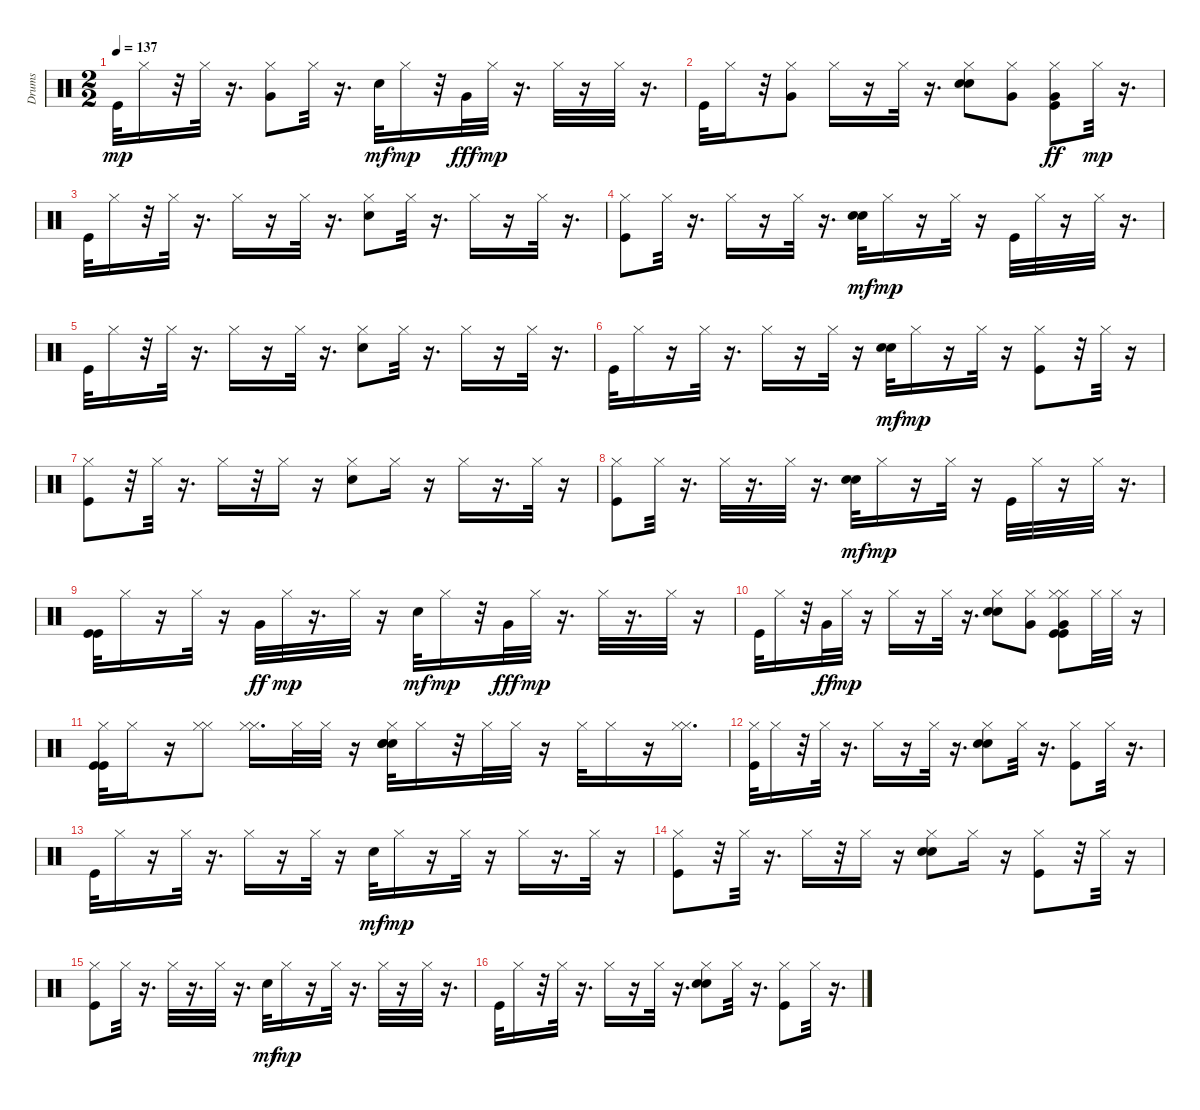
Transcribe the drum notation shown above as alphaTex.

\track ("Drums" "Drums") {instrument percussion}
\staff {score}
\articulation defaults
\ts (2 2)
\tempo 137
\clef neutral
\ks c "Kick (hit)".32{dy mp} "Hi-Hat (closed)".16
r.32 "Hi-Hat (closed)".32 r.16{d} ("Very Low Tom (hit)" "Hi-Hat (closed)").8 "Hi-Hat (closed)".32 r.16{d} "Snare (hit) 2".32{dy mf} "Hi-Hat (closed)".16{dy mp} r.32 "Very Low Tom (hit)".32{dy fff} "Hi-Hat (closed)".32{dy mp} r.16{d} "Hi-Hat (closed)".32 r.16 "Hi-Hat (closed)".32 r.16{d} |
"Kick (hit)".32 "Hi-Hat (closed)".16 r.32 ("Very Low Tom (hit)" "Hi-Hat (closed)").8 "Hi-Hat (closed)".16 r.16 "Hi-Hat (closed)".32 r.16{d} ("Snare (hit) 2" "Hand Clap (hit)" "Hi-Hat (closed)").8 ("Very Low Tom (hit)" "Hi-Hat (closed)").8 ("Kick (hit)" "Hi-Hat (closed)" "Very Low Tom (hit)").8{dy ff} "Hi-Hat (closed)".32{dy mp} r.16{d} |
"Kick (hit)".32 "Hi-Hat (closed)".16 r.32 "Hi-Hat (closed)".32 r.16{d} "Hi-Hat (closed)".16 r.16 "Hi-Hat (closed)".32 r.16{d} ("Snare (hit) 2" "Hi-Hat (closed)").8 "Hi-Hat (closed)".32 r.16{d} "Hi-Hat (closed)".16 r.16 "Hi-Hat (closed)".32 r.16{d} |
("Kick (hit)" "Hi-Hat (closed)").8 "Hi-Hat (closed)".32 r.16{d} "Hi-Hat (closed)".16 r.16 "Hi-Hat (closed)".32 r.16{d} ("Snare (hit) 2" "Hand Clap (hit)").32{dy mf} "Hi-Hat (closed)".16{dy mp} r.16 "Hi-Hat (closed)".32 r.16 "Kick (hit)".32 "Hi-Hat (closed)".32 r.16 "Hi-Hat (closed)".32 r.16{d} |
"Kick (hit)".32 "Hi-Hat (closed)".16 r.32 "Hi-Hat (closed)".32 r.16{d} "Hi-Hat (closed)".16 r.16 "Hi-Hat (closed)".32 r.16{d} ("Snare (hit) 2" "Hi-Hat (closed)").8 "Hi-Hat (closed)".32 r.16{d} "Hi-Hat (closed)".16 r.16 "Hi-Hat (closed)".32 r.16{d} |
"Kick (hit)".32 "Hi-Hat (closed)".16 r.16 "Hi-Hat (closed)".32 r.16{d} "Hi-Hat (closed)".16 r.16 "Hi-Hat (closed)".32 r.16 ("Snare (hit) 2" "Hand Clap (hit)").32{dy mf} "Hi-Hat (closed)".16{dy mp} r.16 "Hi-Hat (closed)".32 r.16 ("Kick (hit)" "Hi-Hat (closed)").8 r.32 "Hi-Hat (closed)".32 r.16 |
("Kick (hit)" "Hi-Hat (closed)").8 r.32 "Hi-Hat (closed)".32 r.16{d} "Hi-Hat (closed)".16 r.32 "Hi-Hat (closed)".16 r.16 ("Snare (hit) 2" "Hi-Hat (closed)").8 "Hi-Hat (closed)".16 r.16 "Hi-Hat (closed)".16 r.16{d} "Hi-Hat (closed)".32 r.16 |
("Kick (hit)" "Hi-Hat (closed)").8 "Hi-Hat (closed)".32 r.16{d} "Hi-Hat (closed)".32 r.16{d} "Hi-Hat (closed)".32 r.16{d} ("Snare (hit) 2" "Hand Clap (hit)").32{dy mf} "Hi-Hat (closed)".16{dy mp} r.16 "Hi-Hat (closed)".32 r.16 "Kick (hit)".32 "Hi-Hat (closed)".32 r.16 "Hi-Hat (closed)".32 r.16{d} |
("Kick (hit)" "Kick (hit)").32 "Hi-Hat (closed)".16 r.16 "Hi-Hat (closed)".32 r.16 "Very Low Tom (hit)".32{dy ff} "Hi-Hat (closed)".32{dy mp} r.16{d} "Hi-Hat (closed)".32 r.16 "Snare (hit) 2".32{dy mf} "Hi-Hat (closed)".16{dy mp} r.32 "Very Low Tom (hit)".32{dy fff} "Hi-Hat (closed)".32{dy mp} r.16{d} "Hi-Hat (closed)".32 r.16{d} "Hi-Hat (closed)".32 r.16 |
"Kick (hit)".32 "Hi-Hat (closed)".16 r.32 "Very Low Tom (hit)".32{dy ff} "Hi-Hat (closed)".32{dy mp} r.16 "Hi-Hat (closed)".16 r.16 "Hi-Hat (closed)".32 r.16{d} ("Hand Clap (hit)" "Snare (hit) 2" "Hi-Hat (closed)").8 ("Very Low Tom (hit)" "Hi-Hat (closed)").8 ("Kick (hit)" "Kick (hit)" "Hi-Hat (closed)" "Very Low Tom (hit)" "Hi-Hat (closed)").8 "Hi-Hat (closed)".32 "Hi-Hat (closed)".32 r.16 |
("Kick (hit)" "Kick (hit)" "Hi-Hat (closed)").32 "Hi-Hat (closed)".16 r.16 ("Hi-Hat (closed)" "Hi-Hat (closed)").8 ("Hi-Hat (closed)" "Hi-Hat (closed)").16{d} "Hi-Hat (closed)".32 "Hi-Hat (closed)".32 r.16 ("Snare (hit) 2" "Snare (hit) 2" "Hand Clap (hit)" "Hi-Hat (closed)").32 "Hi-Hat (closed)".16 r.32 "Hi-Hat (closed)".32 "Hi-Hat (closed)".32 r.16 "Hi-Hat (closed)".32 "Hi-Hat (closed)".16 r.16 ("Hi-Hat (closed)" "Hi-Hat (closed)").16{d} |
("Kick (hit)" "Hi-Hat (closed)").32 "Hi-Hat (closed)".16 r.32 "Hi-Hat (closed)".32 r.16{d} "Hi-Hat (closed)".16 r.16 "Hi-Hat (closed)".32 r.16{d} ("Snare (hit) 2" "Hand Clap (hit)" "Hi-Hat (closed)").8 "Hi-Hat (closed)".32 r.16{d} ("Kick (hit)" "Hi-Hat (closed)").8 "Hi-Hat (closed)".32 r.16{d} |
"Kick (hit)".32 "Hi-Hat (closed)".16 r.16 "Hi-Hat (closed)".32 r.16{d} "Hi-Hat (closed)".16 r.16 "Hi-Hat (closed)".32 r.16 "Snare (hit) 2".32{dy mf} "Hi-Hat (closed)".16{dy mp} r.16 "Hi-Hat (closed)".32 r.16 "Hi-Hat (closed)".16 r.16{d} "Hi-Hat (closed)".32 r.16 |
("Kick (hit)" "Hi-Hat (closed)").8 r.32 "Hi-Hat (closed)".32 r.16{d} "Hi-Hat (closed)".16 r.32 "Hi-Hat (closed)".16 r.16 ("Snare (hit) 2" "Hand Clap (hit)" "Hi-Hat (closed)").8 "Hi-Hat (closed)".16 r.16 ("Kick (hit)" "Hi-Hat (closed)").8 r.32 "Hi-Hat (closed)".32 r.16 |
("Kick (hit)" "Hi-Hat (closed)").8 "Hi-Hat (closed)".32 r.16{d} "Hi-Hat (closed)".32 r.16{d} "Hi-Hat (closed)".32 r.16{d} "Snare (hit) 2".32{dy mf} "Hi-Hat (closed)".16{dy mp} r.16 "Hi-Hat (closed)".32 r.16{d} "Hi-Hat (closed)".32 r.16 "Hi-Hat (closed)".32 r.16{d} |
"Kick (hit)".32 "Hi-Hat (closed)".16 r.32 "Hi-Hat (closed)".32 r.16{d} "Hi-Hat (closed)".16 r.16 "Hi-Hat (closed)".32 r.16{d} ("Snare (hit) 2" "Hand Clap (hit)" "Hi-Hat (closed)").8 "Hi-Hat (closed)".32 r.16{d} ("Kick (hit)" "Hi-Hat (closed)").8 "Hi-Hat (closed)".32 r.16{d}
